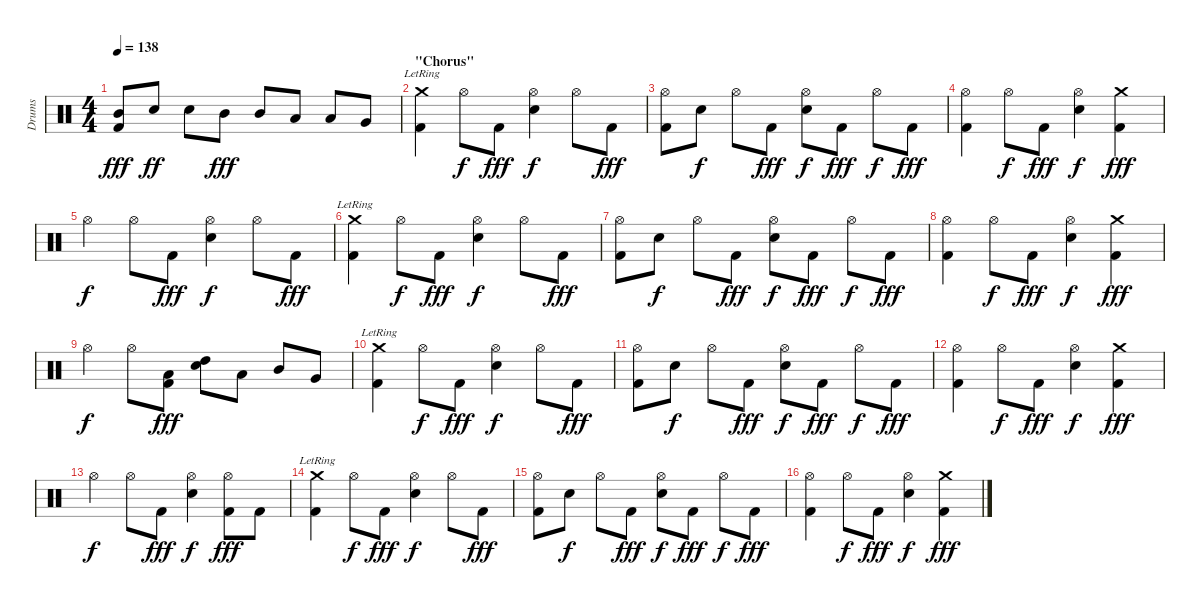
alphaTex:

\track ("Drums" "Drums") {instrument percussion}
\staff {score}
\articulation defaults
\ts (4 4)
\tempo 138
\clef neutral
\ks c
("Mid Tom (hit)" "Kick (hit) 2").8{dy fff} "Snare (hit) 2".8{dy ff} "Snare (hit) 2".8 "Mid Tom (hit)".8{dy fff} "Mid Tom (hit)".8 "Low Tom (hit)".8 "Low Tom (hit)".8 "Very Low Tom (hit)".8 |
\section ("" "\"Chorus\"")
("Crash medium (hit)"{lr} "Kick (hit) 2").4 "Hi-Hat (open)".8{dy f} "Kick (hit) 2".8{dy fff} ("Hi-Hat (open)" "Snare (hit) 2").4{dy f} "Hi-Hat (open)".8 "Kick (hit) 2".8{dy fff} |
("Hi-Hat (open)" "Kick (hit) 2").8 "Snare (hit) 2".8{dy f} "Hi-Hat (open)".8 "Kick (hit) 2".8{dy fff} ("Hi-Hat (open)" "Snare (hit) 2").8{dy f} "Kick (hit) 2".8{dy fff} "Hi-Hat (open)".8{dy f} "Kick (hit) 2".8{dy fff} |
("Hi-Hat (open)" "Kick (hit) 2").4 "Hi-Hat (open)".8{dy f} "Kick (hit) 2".8{dy fff} ("Hi-Hat (open)" "Snare (hit) 2").4{dy f} ("Crash medium (hit)" "Kick (hit) 2").4{dy fff} |
"Hi-Hat (open)".4{dy f} "Hi-Hat (open)".8 "Kick (hit) 2".8{dy fff} ("Hi-Hat (open)" "Snare (hit) 2").4{dy f} "Hi-Hat (open)".8 "Kick (hit) 2".8{dy fff} |
("Crash medium (hit)"{lr} "Kick (hit) 2").4 "Hi-Hat (open)".8{dy f} "Kick (hit) 2".8{dy fff} ("Hi-Hat (open)" "Snare (hit) 2").4{dy f} "Hi-Hat (open)".8 "Kick (hit) 2".8{dy fff} |
("Hi-Hat (open)" "Kick (hit) 2").8 "Snare (hit) 2".8{dy f} "Hi-Hat (open)".8 "Kick (hit) 2".8{dy fff} ("Hi-Hat (open)" "Snare (hit) 2").8{dy f} "Kick (hit) 2".8{dy fff} "Hi-Hat (open)".8{dy f} "Kick (hit) 2".8{dy fff} |
("Hi-Hat (open)" "Kick (hit) 2").4 "Hi-Hat (open)".8{dy f} "Kick (hit) 2".8{dy fff} ("Hi-Hat (open)" "Snare (hit) 2").4{dy f} ("Crash medium (hit)" "Kick (hit) 2").4{dy fff} |
"Hi-Hat (open)".4{dy f} "Hi-Hat (open)".8 ("Low Tom (hit)" "Kick (hit) 2").8{dy fff} ("Snare (hit) 2" "High Tom (hit)").8 "Low Tom (hit)".8 "Mid Tom (hit)".8 "Very Low Tom (hit)".8 |
("Crash medium (hit)"{lr} "Kick (hit) 2").4 "Hi-Hat (open)".8{dy f} "Kick (hit) 2".8{dy fff} ("Hi-Hat (open)" "Snare (hit) 2").4{dy f} "Hi-Hat (open)".8 "Kick (hit) 2".8{dy fff} |
("Hi-Hat (open)" "Kick (hit) 2").8 "Snare (hit) 2".8{dy f} "Hi-Hat (open)".8 "Kick (hit) 2".8{dy fff} ("Hi-Hat (open)" "Snare (hit) 2").8{dy f} "Kick (hit) 2".8{dy fff} "Hi-Hat (open)".8{dy f} "Kick (hit) 2".8{dy fff} |
("Hi-Hat (open)" "Kick (hit) 2").4 "Hi-Hat (open)".8{dy f} "Kick (hit) 2".8{dy fff} ("Hi-Hat (open)" "Snare (hit) 2").4{dy f} ("Crash medium (hit)" "Kick (hit) 2").4{dy fff} |
"Hi-Hat (open)".4{dy f} "Hi-Hat (open)".8 "Kick (hit) 2".8{dy fff} ("Hi-Hat (open)" "Snare (hit) 2").4{dy f} ("Hi-Hat (open)" "Kick (hit) 2").8{dy fff} "Kick (hit) 2".8 |
("Crash medium (hit)"{lr} "Kick (hit) 2").4 "Hi-Hat (open)".8{dy f} "Kick (hit) 2".8{dy fff} ("Hi-Hat (open)" "Snare (hit) 2").4{dy f} "Hi-Hat (open)".8 "Kick (hit) 2".8{dy fff} |
("Hi-Hat (open)" "Kick (hit) 2").8 "Snare (hit) 2".8{dy f} "Hi-Hat (open)".8 "Kick (hit) 2".8{dy fff} ("Hi-Hat (open)" "Snare (hit) 2").8{dy f} "Kick (hit) 2".8{dy fff} "Hi-Hat (open)".8{dy f} "Kick (hit) 2".8{dy fff} |
("Hi-Hat (open)" "Kick (hit) 2").4 "Hi-Hat (open)".8{dy f} "Kick (hit) 2".8{dy fff} ("Hi-Hat (open)" "Snare (hit) 2").4{dy f} ("Crash medium (hit)" "Kick (hit) 2").4{dy fff}
